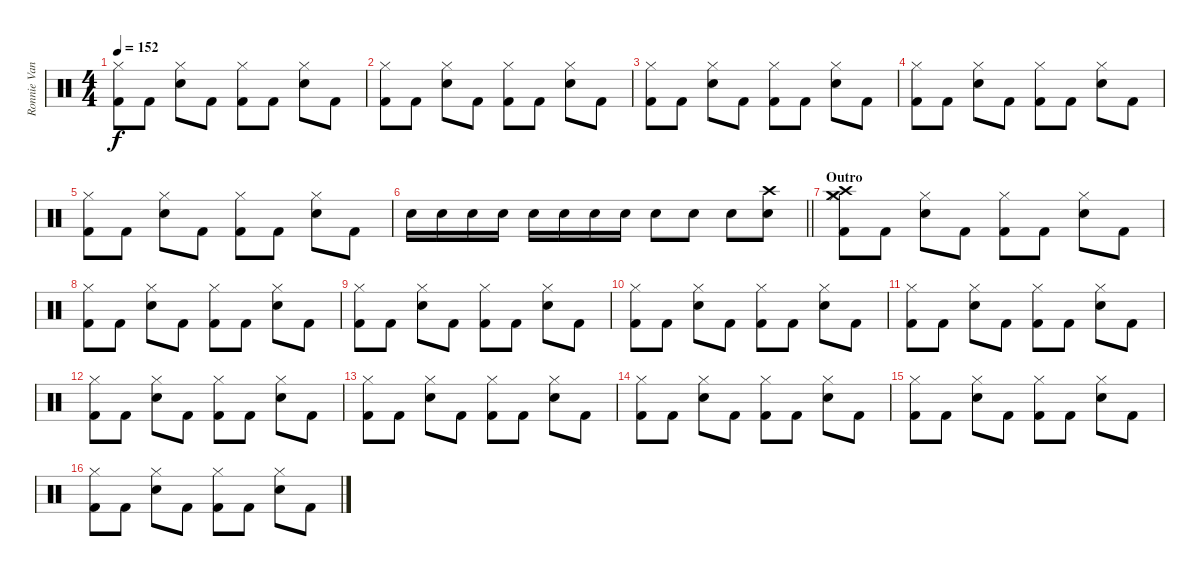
\track ("Ronnie Vannucci Jr." "Ronnie Van") {instrument percussion}
\staff
\articulation defaults
\ts (4 4)
\tempo 152
\clef neutral
\ks c
("Hi-Hat (closed)" "Kick (hit) 2").8{dy f} "Kick (hit) 2".8 ("Hi-Hat (closed)" "Electric Snare (hit)").8 "Kick (hit) 2".8 ("Hi-Hat (closed)" "Kick (hit) 2").8 "Kick (hit) 2".8 ("Hi-Hat (closed)" "Electric Snare (hit)").8 "Kick (hit) 2".8 |
("Hi-Hat (closed)" "Kick (hit) 2").8 "Kick (hit) 2".8 ("Hi-Hat (closed)" "Electric Snare (hit)").8 "Kick (hit) 2".8 ("Hi-Hat (closed)" "Kick (hit) 2").8 "Kick (hit) 2".8 ("Hi-Hat (closed)" "Electric Snare (hit)").8 "Kick (hit) 2".8 |
("Hi-Hat (closed)" "Kick (hit) 2").8 "Kick (hit) 2".8 ("Hi-Hat (closed)" "Electric Snare (hit)").8 "Kick (hit) 2".8 ("Hi-Hat (closed)" "Kick (hit) 2").8 "Kick (hit) 2".8 ("Hi-Hat (closed)" "Electric Snare (hit)").8 "Kick (hit) 2".8 |
("Hi-Hat (closed)" "Kick (hit) 2").8 "Kick (hit) 2".8 ("Hi-Hat (closed)" "Electric Snare (hit)").8 "Kick (hit) 2".8 ("Hi-Hat (closed)" "Kick (hit) 2").8 "Kick (hit) 2".8 ("Hi-Hat (closed)" "Electric Snare (hit)").8 "Kick (hit) 2".8 |
("Hi-Hat (closed)" "Kick (hit) 2").8 "Kick (hit) 2".8 ("Hi-Hat (closed)" "Electric Snare (hit)").8 "Kick (hit) 2".8 ("Hi-Hat (closed)" "Kick (hit) 2").8 "Kick (hit) 2".8 ("Hi-Hat (closed)" "Electric Snare (hit)").8 "Kick (hit) 2".8 |
\barLineRight lightlight "Electric Snare (hit)".16 "Electric Snare (hit)".16 "Electric Snare (hit)".16 "Electric Snare (hit)".16 "Electric Snare (hit)".16 "Electric Snare (hit)".16 "Electric Snare (hit)".16 "Electric Snare (hit)".16 "Electric Snare (hit)".8 "Electric Snare (hit)".8 "Electric Snare (hit)".8
("Crash high (hit)" "Electric Snare (hit)").8 |
\section ("" "Outro")
("Crash high (hit)" "Crash medium (hit)" "Hi-Hat (closed)" "Kick (hit) 2").8 "Kick (hit) 2".8 ("Hi-Hat (closed)" "Electric Snare (hit)").8 "Kick (hit) 2".8 ("Hi-Hat (closed)" "Kick (hit) 2").8 "Kick (hit) 2".8 ("Hi-Hat (closed)" "Electric Snare (hit)").8 "Kick (hit) 2".8 |
("Hi-Hat (closed)" "Kick (hit) 2").8 "Kick (hit) 2".8 ("Hi-Hat (closed)" "Electric Snare (hit)").8 "Kick (hit) 2".8 ("Hi-Hat (closed)" "Kick (hit) 2").8 "Kick (hit) 2".8 ("Hi-Hat (closed)" "Electric Snare (hit)").8 "Kick (hit) 2".8 |
("Hi-Hat (closed)" "Kick (hit) 2").8 "Kick (hit) 2".8 ("Hi-Hat (closed)" "Electric Snare (hit)").8 "Kick (hit) 2".8 ("Hi-Hat (closed)" "Kick (hit) 2").8 "Kick (hit) 2".8 ("Hi-Hat (closed)" "Electric Snare (hit)").8 "Kick (hit) 2".8 |
("Hi-Hat (closed)" "Kick (hit) 2").8 "Kick (hit) 2".8 ("Hi-Hat (closed)" "Electric Snare (hit)").8 "Kick (hit) 2".8 ("Hi-Hat (closed)" "Kick (hit) 2").8 "Kick (hit) 2".8 ("Hi-Hat (closed)" "Electric Snare (hit)").8 "Kick (hit) 2".8 |
("Hi-Hat (closed)" "Kick (hit) 2").8 "Kick (hit) 2".8 ("Hi-Hat (closed)" "Electric Snare (hit)").8 "Kick (hit) 2".8 ("Hi-Hat (closed)" "Kick (hit) 2").8 "Kick (hit) 2".8 ("Hi-Hat (closed)" "Electric Snare (hit)").8 "Kick (hit) 2".8 |
("Hi-Hat (closed)" "Kick (hit) 2").8 "Kick (hit) 2".8 ("Hi-Hat (closed)" "Electric Snare (hit)").8 "Kick (hit) 2".8 ("Hi-Hat (closed)" "Kick (hit) 2").8 "Kick (hit) 2".8 ("Hi-Hat (closed)" "Electric Snare (hit)").8 "Kick (hit) 2".8 |
("Hi-Hat (closed)" "Kick (hit) 2").8 "Kick (hit) 2".8 ("Hi-Hat (closed)" "Electric Snare (hit)").8 "Kick (hit) 2".8 ("Hi-Hat (closed)" "Kick (hit) 2").8 "Kick (hit) 2".8 ("Hi-Hat (closed)" "Electric Snare (hit)").8 "Kick (hit) 2".8 |
("Hi-Hat (closed)" "Kick (hit) 2").8 "Kick (hit) 2".8 ("Hi-Hat (closed)" "Electric Snare (hit)").8 "Kick (hit) 2".8 ("Hi-Hat (closed)" "Kick (hit) 2").8 "Kick (hit) 2".8 ("Hi-Hat (closed)" "Electric Snare (hit)").8 "Kick (hit) 2".8 |
("Hi-Hat (closed)" "Kick (hit) 2").8 "Kick (hit) 2".8 ("Hi-Hat (closed)" "Electric Snare (hit)").8 "Kick (hit) 2".8 ("Hi-Hat (closed)" "Kick (hit) 2").8 "Kick (hit) 2".8 ("Hi-Hat (closed)" "Electric Snare (hit)").8 "Kick (hit) 2".8 |
("Hi-Hat (closed)" "Kick (hit) 2").8 "Kick (hit) 2".8 ("Hi-Hat (closed)" "Electric Snare (hit)").8 "Kick (hit) 2".8 ("Hi-Hat (closed)" "Kick (hit) 2").8 "Kick (hit) 2".8 ("Hi-Hat (closed)" "Electric Snare (hit)").8 "Kick (hit) 2".8
